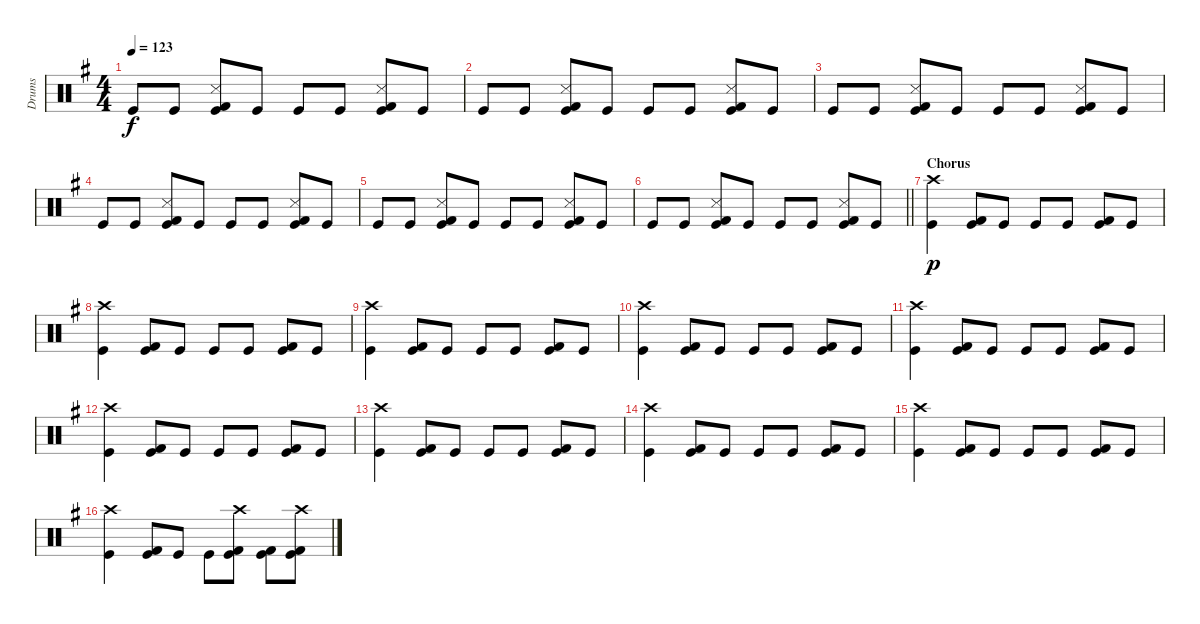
\track ("Drums" "Drums") {instrument percussion}
\staff {score}
\articulation defaults
\ts (4 4)
\tempo 123
\clef neutral
\ks g "Kick (hit)".8{dy f} "Kick (hit)".8
("Snare (side stick) 3" "Kick (hit) 2" "Kick (hit)").8 "Kick (hit)".8 "Kick (hit)".8 "Kick (hit)".8 ("Snare (side stick) 3" "Kick (hit) 2" "Kick (hit)").8 "Kick (hit)".8 |
"Kick (hit)".8 "Kick (hit)".8 ("Snare (side stick) 3" "Kick (hit) 2" "Kick (hit)").8 "Kick (hit)".8 "Kick (hit)".8 "Kick (hit)".8 ("Snare (side stick) 3" "Kick (hit) 2" "Kick (hit)").8 "Kick (hit)".8 |
"Kick (hit)".8 "Kick (hit)".8 ("Snare (side stick) 3" "Kick (hit) 2" "Kick (hit)").8 "Kick (hit)".8 "Kick (hit)".8 "Kick (hit)".8 ("Snare (side stick) 3" "Kick (hit) 2" "Kick (hit)").8 "Kick (hit)".8 |
"Kick (hit)".8 "Kick (hit)".8 ("Snare (side stick) 3" "Kick (hit) 2" "Kick (hit)").8 "Kick (hit)".8 "Kick (hit)".8 "Kick (hit)".8 ("Snare (side stick) 3" "Kick (hit) 2" "Kick (hit)").8 "Kick (hit)".8 |
"Kick (hit)".8 "Kick (hit)".8 ("Snare (side stick) 3" "Kick (hit) 2" "Kick (hit)").8 "Kick (hit)".8 "Kick (hit)".8 "Kick (hit)".8 ("Snare (side stick) 3" "Kick (hit) 2" "Kick (hit)").8 "Kick (hit)".8 |
\barLineRight lightlight "Kick (hit)".8 "Kick (hit)".8
("Snare (side stick) 3" "Kick (hit) 2" "Kick (hit)").8 "Kick (hit)".8 "Kick (hit)".8 "Kick (hit)".8 ("Snare (side stick) 3" "Kick (hit) 2" "Kick (hit)").8 "Kick (hit)".8 |
\section ("" "Chorus")
("Crash high (hit)" "Kick (hit)").4{dy p} ("Kick (hit) 2" "Kick (hit)").8 "Kick (hit)".8 "Kick (hit)".8 "Kick (hit)".8 ("Kick (hit) 2" "Kick (hit)").8 "Kick (hit)".8 |
("Crash high (hit)" "Kick (hit)").4 ("Kick (hit) 2" "Kick (hit)").8 "Kick (hit)".8 "Kick (hit)".8 "Kick (hit)".8 ("Kick (hit) 2" "Kick (hit)").8 "Kick (hit)".8 |
("Crash high (hit)" "Kick (hit)").4 ("Kick (hit) 2" "Kick (hit)").8 "Kick (hit)".8 "Kick (hit)".8 "Kick (hit)".8 ("Kick (hit) 2" "Kick (hit)").8 "Kick (hit)".8 |
("Crash high (hit)" "Kick (hit)").4 ("Kick (hit) 2" "Kick (hit)").8 "Kick (hit)".8 "Kick (hit)".8 "Kick (hit)".8 ("Kick (hit) 2" "Kick (hit)").8 "Kick (hit)".8 |
("Crash high (hit)" "Kick (hit)").4 ("Kick (hit) 2" "Kick (hit)").8 "Kick (hit)".8 "Kick (hit)".8 "Kick (hit)".8 ("Kick (hit) 2" "Kick (hit)").8 "Kick (hit)".8 |
("Crash high (hit)" "Kick (hit)").4 ("Kick (hit) 2" "Kick (hit)").8 "Kick (hit)".8 "Kick (hit)".8 "Kick (hit)".8 ("Kick (hit) 2" "Kick (hit)").8 "Kick (hit)".8 |
("Crash high (hit)" "Kick (hit)").4 ("Kick (hit) 2" "Kick (hit)").8 "Kick (hit)".8 "Kick (hit)".8 "Kick (hit)".8 ("Kick (hit) 2" "Kick (hit)").8 "Kick (hit)".8 |
("Crash high (hit)" "Kick (hit)").4 ("Kick (hit) 2" "Kick (hit)").8 "Kick (hit)".8 "Kick (hit)".8 "Kick (hit)".8 ("Kick (hit) 2" "Kick (hit)").8 "Kick (hit)".8 |
("Crash high (hit)" "Kick (hit)").4 ("Kick (hit) 2" "Kick (hit)").8 "Kick (hit)".8 "Kick (hit)".8 "Kick (hit)".8 ("Kick (hit) 2" "Kick (hit)").8 "Kick (hit)".8 |
("Crash high (hit)" "Kick (hit)").4 ("Kick (hit) 2" "Kick (hit)").8 "Kick (hit)".8 "Kick (hit)".8 ("Kick (hit) 2" "Crash high (hit)" "Kick (hit)").8 ("Kick (hit) 2" "Kick (hit)").8 ("Kick (hit) 2" "Crash high (hit)" "Kick (hit)").8
